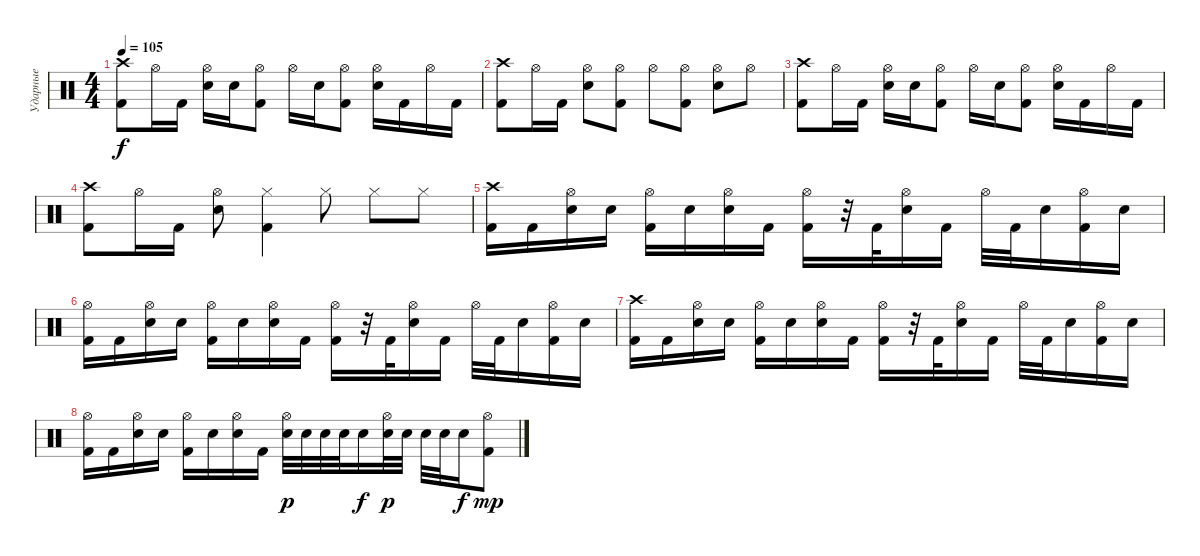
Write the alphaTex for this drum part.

\track ("Ударные" "Ударные") {instrument percussion}
\staff {score}
\articulation defaults
\ts (4 4)
\tempo 105
\clef neutral
\ks c
("Crash high (hit)" "Kick (hit) 2").8{dy f} "Hi-Hat (open)".16 "Kick (hit) 2".16 ("Hi-Hat (open)" "Electric Snare (hit)").16 "Electric Snare (hit)".16 ("Hi-Hat (open)" "Kick (hit) 2").8 "Hi-Hat (open)".16 "Electric Snare (hit)".16 ("Hi-Hat (open)" "Kick (hit) 2").8 ("Hi-Hat (open)" "Electric Snare (hit)").16 "Kick (hit) 2".16 "Hi-Hat (open)".16 "Kick (hit) 2".16 |
("Crash high (hit)" "Kick (hit) 2").8 "Hi-Hat (open)".16 "Kick (hit) 2".16 ("Hi-Hat (open)" "Electric Snare (hit)").8 ("Hi-Hat (open)" "Kick (hit) 2").8 "Hi-Hat (open)".8 ("Hi-Hat (open)" "Kick (hit) 2").8 ("Hi-Hat (open)" "Electric Snare (hit)").8 "Hi-Hat (open)".8 |
("Crash high (hit)" "Kick (hit) 2").8 "Hi-Hat (open)".16 "Kick (hit) 2".16 ("Hi-Hat (open)" "Electric Snare (hit)").16 "Electric Snare (hit)".16 ("Hi-Hat (open)" "Kick (hit) 2").8 "Hi-Hat (open)".16 "Electric Snare (hit)".16 ("Hi-Hat (open)" "Kick (hit) 2").8 ("Hi-Hat (open)" "Electric Snare (hit)").16 "Kick (hit) 2".16 "Hi-Hat (open)".16 "Kick (hit) 2".16 |
("Crash high (hit)" "Kick (hit) 2").8 "Hi-Hat (open)".16 "Kick (hit) 2".16 ("Hi-Hat (open)" "Electric Snare (hit)").8 ("Hi-Hat (closed)" "Kick (hit) 2").4 "Hi-Hat (closed)".8 "Hi-Hat (closed)".8 "Hi-Hat (closed)".8 |
("Crash high (hit)" "Kick (hit) 2").16 "Kick (hit) 2".16 ("Hi-Hat (open)" "Electric Snare (hit)").16 "Electric Snare (hit)".16 ("Hi-Hat (open)" "Kick (hit) 2").16 "Electric Snare (hit)".16 ("Hi-Hat (open)" "Electric Snare (hit)").16 "Kick (hit) 2".16 ("Hi-Hat (open)" "Kick (hit) 2").16 r.32 "Kick (hit) 2".32 ("Hi-Hat (open)" "Electric Snare (hit)").16 "Kick (hit) 2".16 "Hi-Hat (open)".32 "Kick (hit) 2".32 "Electric Snare (hit)".16 ("Hi-Hat (open)" "Kick (hit) 2").16 "Electric Snare (hit)".16 |
("Hi-Hat (open)" "Kick (hit) 2").16 "Kick (hit) 2".16 ("Hi-Hat (open)" "Electric Snare (hit)").16 "Electric Snare (hit)".16 ("Hi-Hat (open)" "Kick (hit) 2").16 "Electric Snare (hit)".16 ("Hi-Hat (open)" "Electric Snare (hit)").16 "Kick (hit) 2".16 ("Hi-Hat (open)" "Kick (hit) 2").16 r.32 "Kick (hit) 2".32 ("Hi-Hat (open)" "Electric Snare (hit)").16 "Kick (hit) 2".16 "Hi-Hat (open)".32 "Kick (hit) 2".32 "Electric Snare (hit)".16 ("Hi-Hat (open)" "Kick (hit) 2").16 "Electric Snare (hit)".16 |
("Crash high (hit)" "Kick (hit) 2").16 "Kick (hit) 2".16 ("Hi-Hat (open)" "Electric Snare (hit)").16 "Electric Snare (hit)".16 ("Hi-Hat (open)" "Kick (hit) 2").16 "Electric Snare (hit)".16 ("Hi-Hat (open)" "Electric Snare (hit)").16 "Kick (hit) 2".16 ("Hi-Hat (open)" "Kick (hit) 2").16 r.32 "Kick (hit) 2".32 ("Hi-Hat (open)" "Electric Snare (hit)").16 "Kick (hit) 2".16 "Hi-Hat (open)".32 "Kick (hit) 2".32 "Electric Snare (hit)".16 ("Hi-Hat (open)" "Kick (hit) 2").16 "Electric Snare (hit)".16 |
("Hi-Hat (open)" "Kick (hit) 2").16 "Kick (hit) 2".16 ("Hi-Hat (open)" "Electric Snare (hit)").16 "Electric Snare (hit)".16 ("Hi-Hat (open)" "Kick (hit) 2").16 "Electric Snare (hit)".16 ("Hi-Hat (open)" "Electric Snare (hit)").16 "Kick (hit) 2".16 ("Hi-Hat (open)" "Electric Snare (hit)").32{dy p} "Electric Snare (hit)".32 "Electric Snare (hit)".32 "Electric Snare (hit)".32 "Electric Snare (hit)".16{dy f} ("Hi-Hat (open)" "Electric Snare (hit)").32{dy p} "Electric Snare (hit)".32 "Electric Snare (hit)".32 "Electric Snare (hit)".32 "Electric Snare (hit)".16{dy f} ("Hi-Hat (open)" "Kick (hit) 2").8{dy mp}
